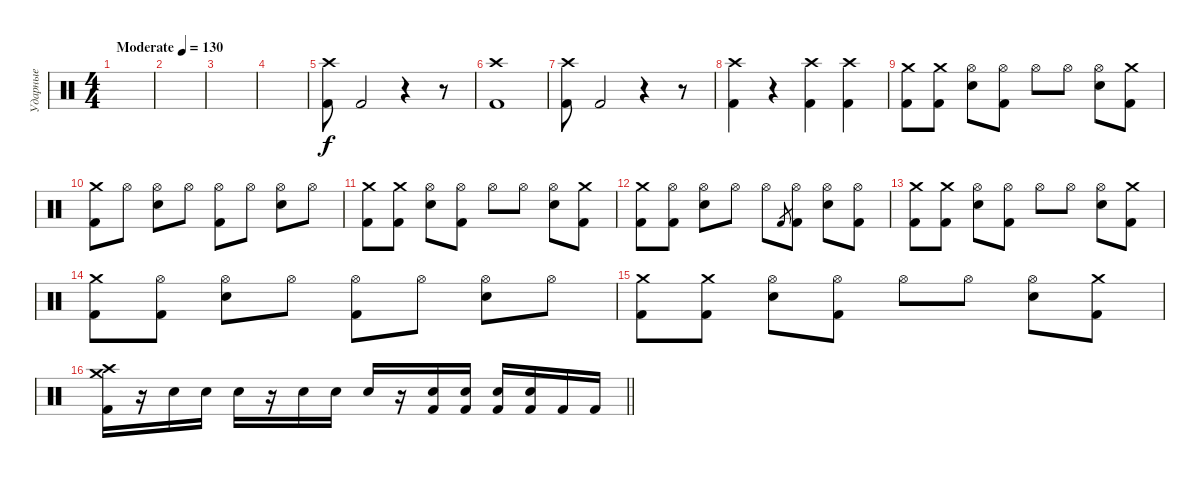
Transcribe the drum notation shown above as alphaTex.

\track ("Ударные" "Ударные") {instrument percussion}
\staff {score}
\articulation defaults
\ts (4 4)
\tempo (130 "Moderate")
\clef neutral
\ks c
|
|
|
|
("Crash high (hit)" "Kick (hit) 2").8 "Kick (hit) 2".2 r.4 r.8 |
("Crash high (hit)" "Kick (hit) 2").1 |
("Crash high (hit)" "Kick (hit) 2").8 "Kick (hit) 2".2 r.4 r.8 |
("Crash high (hit)" "Kick (hit) 2").4 r.4 ("Crash high (hit)" "Kick (hit) 2").4 ("Crash high (hit)" "Kick (hit) 2").4 |
("Crash medium (hit)" "Kick (hit) 2").8 ("Crash medium (hit)" "Kick (hit) 2").8 ("Hi-Hat (open)" "Snare (hit) 2").8 ("Hi-Hat (open)" "Kick (hit) 2").8 "Hi-Hat (open)".8 "Hi-Hat (open)".8 ("Hi-Hat (open)" "Snare (hit) 2").8 ("Crash medium (hit)" "Kick (hit) 2").8 |
("Crash medium (hit)" "Kick (hit) 2").8 "Hi-Hat (open)".8 ("Hi-Hat (open)" "Snare (hit) 2").8 "Hi-Hat (open)".8 ("Hi-Hat (open)" "Kick (hit) 2").8 "Hi-Hat (open)".8 ("Hi-Hat (open)" "Snare (hit) 2").8 "Hi-Hat (open)".8 |
("Crash medium (hit)" "Kick (hit) 2").8 ("Crash medium (hit)" "Kick (hit) 2").8 ("Hi-Hat (open)" "Snare (hit) 2").8 ("Hi-Hat (open)" "Kick (hit) 2").8 "Hi-Hat (open)".8 "Hi-Hat (open)".8 ("Hi-Hat (open)" "Snare (hit) 2").8 ("Crash medium (hit)" "Kick (hit) 2").8 |
("Crash medium (hit)" "Kick (hit) 2").8 ("Hi-Hat (open)" "Kick (hit) 2").8 ("Hi-Hat (open)" "Snare (hit) 2").8 "Hi-Hat (open)".8 "Hi-Hat (open)".8 "Kick (hit) 2".8{gr} ("Hi-Hat (open)" "Kick (hit) 2").8 ("Hi-Hat (open)" "Snare (hit) 2").8 ("Hi-Hat (open)" "Kick (hit) 2").8 |
("Crash medium (hit)" "Kick (hit) 2").8 ("Crash medium (hit)" "Kick (hit) 2").8 ("Hi-Hat (open)" "Snare (hit) 2").8 ("Hi-Hat (open)" "Kick (hit) 2").8 "Hi-Hat (open)".8 "Hi-Hat (open)".8 ("Hi-Hat (open)" "Snare (hit) 2").8 ("Crash medium (hit)" "Kick (hit) 2").8 |
("Crash medium (hit)" "Kick (hit) 2").8 ("Hi-Hat (open)" "Kick (hit) 2").8 ("Hi-Hat (open)" "Snare (hit) 2").8 "Hi-Hat (open)".8 ("Hi-Hat (open)" "Kick (hit) 2").8 "Hi-Hat (open)".8 ("Hi-Hat (open)" "Snare (hit) 2").8 "Hi-Hat (open)".8 |
("Crash medium (hit)" "Kick (hit) 2").8 ("Crash medium (hit)" "Kick (hit) 2").8 ("Hi-Hat (open)" "Snare (hit) 2").8 ("Hi-Hat (open)" "Kick (hit) 2").8 "Hi-Hat (open)".8 "Hi-Hat (open)".8 ("Hi-Hat (open)" "Snare (hit) 2").8 ("Crash medium (hit)" "Kick (hit) 2").8 |
\barLineRight lightlight
("Crash medium (hit)" "Crash high (hit)" "Kick (hit) 2").16 r.16 "Snare (hit) 2".16 "Snare (hit) 2".16 "Snare (hit) 2".16 r.16 "Snare (hit) 2".16 "Snare (hit) 2".16 "Snare (hit) 2".16 r.16 ("Snare (hit) 2" "Kick (hit) 2").16 ("Snare (hit) 2" "Kick (hit) 2").16 ("Snare (hit) 2" "Kick (hit) 2").16 ("Snare (hit) 2" "Kick (hit) 2").16 "Kick (hit) 2".16 "Kick (hit) 2".16
